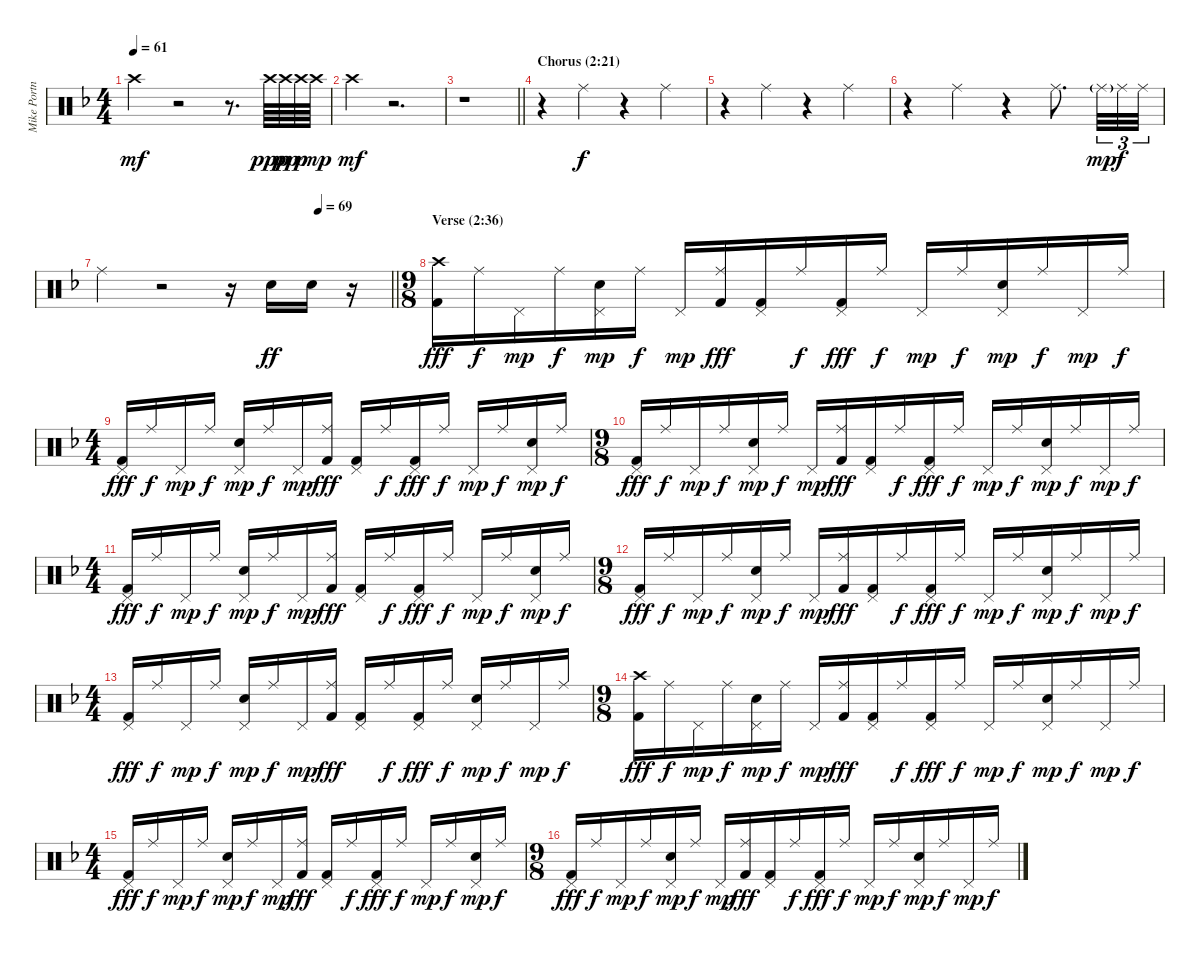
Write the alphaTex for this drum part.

\track ("Mike Portnoy Drums" "Mike Portn") {instrument percussion}
\staff {score}
\articulation defaults
\ts (4 4)
\tempo 61
\clef neutral
\ks dminor "Crash high (hit)".4{dy mf}
r.2 r.8{d} "Crash high (hit)".64{dy ppp} "Crash high (hit)".64{dy pp} "Crash high (hit)".64{dy p} "Crash high (hit)".64{dy mp} |
"Crash high (hit)".4{dy mf} r.2{d} |
\barLineRight lightlight
r.1 |
\section ("" "Chorus (2:21)")
r.4 "Ride (middle)".4{dy f} r.4 "Ride (middle)".4 |
r.4 "Ride (middle)".4 r.4 "Ride (middle)".4 |
r.4 "Ride (middle)".4 r.4 "Ride (middle)".8{d} "Ride (middle)"{g}.32{tu (3 2) dy mp} "Ride (middle)".32{tu (3 2) dy f} "Ride (middle)".32{tu (3 2)} |
\tempo (69 0.75)
\barLineRight lightlight "Ride (middle)".4
r.2 r.16 "Electric Snare (hit)".16{dy ff} "Electric Snare (hit)".16 r.16 |
\ts (9 8)
\section ("" "Verse (2:36)")
("Crash high (hit)" "Kick (hit) 2").16{dy fff} "Ride (middle)".16{dy f} "Pedal Hi-Hat (hit)".16{dy mp} "Ride (middle)".16{dy f} ("Electric Snare (hit)" "Pedal Hi-Hat (hit)").16{dy mp} "Ride (middle)".16{dy f} "Pedal Hi-Hat (hit)".16{dy mp} ("Ride (middle)" "Kick (hit) 2").16{dy fff} ("Pedal Hi-Hat (hit)" "Kick (hit) 2").16 "Ride (middle)".16{dy f} ("Pedal Hi-Hat (hit)" "Kick (hit) 2").16{dy fff} "Ride (middle)".16{dy f} "Pedal Hi-Hat (hit)".16{dy mp} "Ride (middle)".16{dy f} ("Electric Snare (hit)" "Pedal Hi-Hat (hit)").16{dy mp} "Ride (middle)".16{dy f} "Pedal Hi-Hat (hit)".16{dy mp} "Ride (middle)".16{dy f} |
\ts (4 4)
("Pedal Hi-Hat (hit)" "Kick (hit) 2").16{dy fff} "Ride (middle)".16{dy f} "Pedal Hi-Hat (hit)".16{dy mp} "Ride (middle)".16{dy f} ("Electric Snare (hit)" "Pedal Hi-Hat (hit)").16{dy mp} "Ride (middle)".16{dy f} "Pedal Hi-Hat (hit)".16{dy mp} ("Ride (middle)" "Kick (hit) 2").16{dy fff} ("Pedal Hi-Hat (hit)" "Kick (hit) 2").16 "Ride (middle)".16{dy f} ("Pedal Hi-Hat (hit)" "Kick (hit) 2").16{dy fff} "Ride (middle)".16{dy f} "Pedal Hi-Hat (hit)".16{dy mp} "Ride (middle)".16{dy f} ("Electric Snare (hit)" "Pedal Hi-Hat (hit)").16{dy mp} "Ride (middle)".16{dy f} |
\ts (9 8)
("Pedal Hi-Hat (hit)" "Kick (hit) 2").16{dy fff} "Ride (middle)".16{dy f} "Pedal Hi-Hat (hit)".16{dy mp} "Ride (middle)".16{dy f} ("Electric Snare (hit)" "Pedal Hi-Hat (hit)").16{dy mp} "Ride (middle)".16{dy f} "Pedal Hi-Hat (hit)".16{dy mp} ("Ride (middle)" "Kick (hit) 2").16{dy fff} ("Pedal Hi-Hat (hit)" "Kick (hit) 2").16 "Ride (middle)".16{dy f} ("Pedal Hi-Hat (hit)" "Kick (hit) 2").16{dy fff} "Ride (middle)".16{dy f} "Pedal Hi-Hat (hit)".16{dy mp} "Ride (middle)".16{dy f} ("Electric Snare (hit)" "Pedal Hi-Hat (hit)").16{dy mp} "Ride (middle)".16{dy f} "Pedal Hi-Hat (hit)".16{dy mp} "Ride (middle)".16{dy f} |
\ts (4 4)
("Pedal Hi-Hat (hit)" "Kick (hit) 2").16{dy fff} "Ride (middle)".16{dy f} "Pedal Hi-Hat (hit)".16{dy mp} "Ride (middle)".16{dy f} ("Electric Snare (hit)" "Pedal Hi-Hat (hit)").16{dy mp} "Ride (middle)".16{dy f} "Pedal Hi-Hat (hit)".16{dy mp} ("Ride (middle)" "Kick (hit) 2").16{dy fff} ("Pedal Hi-Hat (hit)" "Kick (hit) 2").16 "Ride (middle)".16{dy f} ("Pedal Hi-Hat (hit)" "Kick (hit) 2").16{dy fff} "Ride (middle)".16{dy f} "Pedal Hi-Hat (hit)".16{dy mp} "Ride (middle)".16{dy f} ("Electric Snare (hit)" "Pedal Hi-Hat (hit)").16{dy mp} "Ride (middle)".16{dy f} |
\ts (9 8)
("Pedal Hi-Hat (hit)" "Kick (hit) 2").16{dy fff} "Ride (middle)".16{dy f} "Pedal Hi-Hat (hit)".16{dy mp} "Ride (middle)".16{dy f} ("Electric Snare (hit)" "Pedal Hi-Hat (hit)").16{dy mp} "Ride (middle)".16{dy f} "Pedal Hi-Hat (hit)".16{dy mp} ("Ride (middle)" "Kick (hit) 2").16{dy fff} ("Pedal Hi-Hat (hit)" "Kick (hit) 2").16 "Ride (middle)".16{dy f} ("Pedal Hi-Hat (hit)" "Kick (hit) 2").16{dy fff} "Ride (middle)".16{dy f} "Pedal Hi-Hat (hit)".16{dy mp} "Ride (middle)".16{dy f} ("Electric Snare (hit)" "Pedal Hi-Hat (hit)").16{dy mp} "Ride (middle)".16{dy f} "Pedal Hi-Hat (hit)".16{dy mp} "Ride (middle)".16{dy f} |
\ts (4 4)
("Pedal Hi-Hat (hit)" "Kick (hit) 2").16{dy fff} "Ride (middle)".16{dy f} "Pedal Hi-Hat (hit)".16{dy mp} "Ride (middle)".16{dy f} ("Electric Snare (hit)" "Pedal Hi-Hat (hit)").16{dy mp} "Ride (middle)".16{dy f} "Pedal Hi-Hat (hit)".16{dy mp} ("Ride (middle)" "Kick (hit) 2").16{dy fff} ("Pedal Hi-Hat (hit)" "Kick (hit) 2").16 "Ride (middle)".16{dy f} ("Pedal Hi-Hat (hit)" "Kick (hit) 2").16{dy fff} "Ride (middle)".16{dy f} ("Electric Snare (hit)" "Pedal Hi-Hat (hit)").16{dy mp} "Ride (middle)".16{dy f} "Pedal Hi-Hat (hit)".16{dy mp} "Ride (middle)".16{dy f} |
\ts (9 8)
("Crash high (hit)" "Kick (hit) 2").16{dy fff} "Ride (middle)".16{dy f} "Pedal Hi-Hat (hit)".16{dy mp} "Ride (middle)".16{dy f} ("Electric Snare (hit)" "Pedal Hi-Hat (hit)").16{dy mp} "Ride (middle)".16{dy f} "Pedal Hi-Hat (hit)".16{dy mp} ("Ride (middle)" "Kick (hit) 2").16{dy fff} ("Pedal Hi-Hat (hit)" "Kick (hit) 2").16 "Ride (middle)".16{dy f} ("Pedal Hi-Hat (hit)" "Kick (hit) 2").16{dy fff} "Ride (middle)".16{dy f} "Pedal Hi-Hat (hit)".16{dy mp} "Ride (middle)".16{dy f} ("Electric Snare (hit)" "Pedal Hi-Hat (hit)").16{dy mp} "Ride (middle)".16{dy f} "Pedal Hi-Hat (hit)".16{dy mp} "Ride (middle)".16{dy f} |
\ts (4 4)
("Pedal Hi-Hat (hit)" "Kick (hit) 2").16{dy fff} "Ride (middle)".16{dy f} "Pedal Hi-Hat (hit)".16{dy mp} "Ride (middle)".16{dy f} ("Electric Snare (hit)" "Pedal Hi-Hat (hit)").16{dy mp} "Ride (middle)".16{dy f} "Pedal Hi-Hat (hit)".16{dy mp} ("Ride (middle)" "Kick (hit) 2").16{dy fff} ("Pedal Hi-Hat (hit)" "Kick (hit) 2").16 "Ride (middle)".16{dy f} ("Pedal Hi-Hat (hit)" "Kick (hit) 2").16{dy fff} "Ride (middle)".16{dy f} "Pedal Hi-Hat (hit)".16{dy mp} "Ride (middle)".16{dy f} ("Electric Snare (hit)" "Pedal Hi-Hat (hit)").16{dy mp} "Ride (middle)".16{dy f} |
\ts (9 8)
("Pedal Hi-Hat (hit)" "Kick (hit) 2").16{dy fff} "Ride (middle)".16{dy f} "Pedal Hi-Hat (hit)".16{dy mp} "Ride (middle)".16{dy f} ("Electric Snare (hit)" "Pedal Hi-Hat (hit)").16{dy mp} "Ride (middle)".16{dy f} "Pedal Hi-Hat (hit)".16{dy mp} ("Ride (middle)" "Kick (hit) 2").16{dy fff} ("Pedal Hi-Hat (hit)" "Kick (hit) 2").16 "Ride (middle)".16{dy f} ("Pedal Hi-Hat (hit)" "Kick (hit) 2").16{dy fff} "Ride (middle)".16{dy f} "Pedal Hi-Hat (hit)".16{dy mp} "Ride (middle)".16{dy f} ("Electric Snare (hit)" "Pedal Hi-Hat (hit)").16{dy mp} "Ride (middle)".16{dy f} "Pedal Hi-Hat (hit)".16{dy mp} "Ride (middle)".16{dy f}
